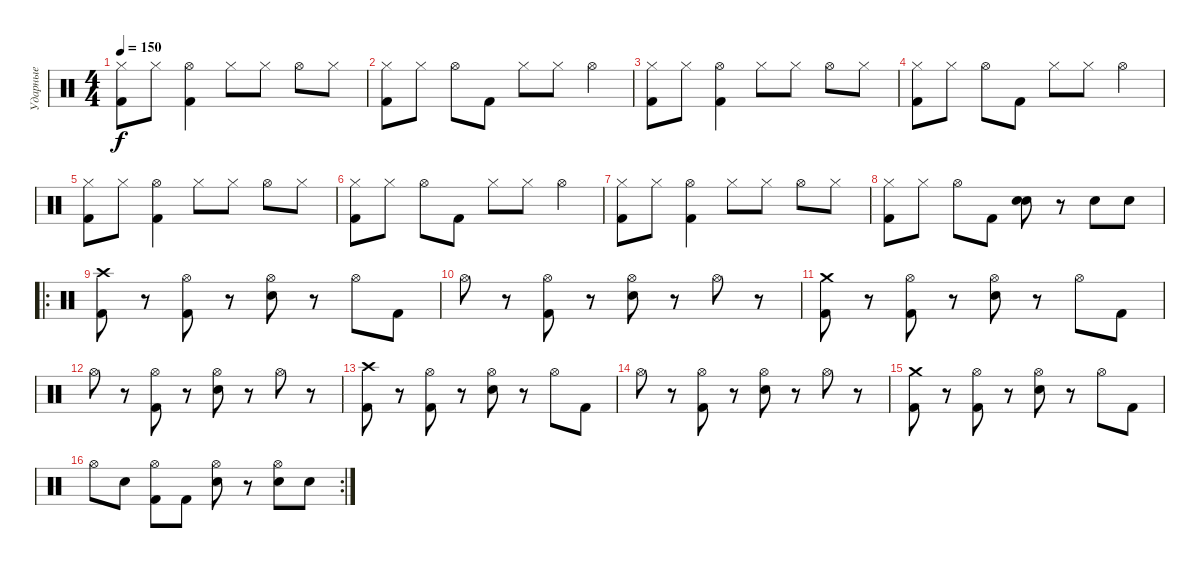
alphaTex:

\track ("Ударные" "Ударные") {instrument percussion}
\staff {score}
\articulation defaults
\ts (4 4)
\tempo 150
\clef neutral
\ks c
("Hi-Hat (closed)" "Kick (hit) 2").8{dy f} "Hi-Hat (closed)".8 ("Hi-Hat (open)" "Kick (hit) 2").4 "Hi-Hat (closed)".8 "Hi-Hat (closed)".8 "Hi-Hat (open)".8 "Hi-Hat (closed)".8 |
("Hi-Hat (closed)" "Kick (hit) 2").8 "Hi-Hat (closed)".8 "Hi-Hat (open)".8 "Kick (hit) 2".8 "Hi-Hat (closed)".8 "Hi-Hat (closed)".8 "Hi-Hat (open)".4 |
("Hi-Hat (closed)" "Kick (hit) 2").8 "Hi-Hat (closed)".8 ("Hi-Hat (open)" "Kick (hit) 2").4 "Hi-Hat (closed)".8 "Hi-Hat (closed)".8 "Hi-Hat (open)".8 "Hi-Hat (closed)".8 |
("Hi-Hat (closed)" "Kick (hit) 2").8 "Hi-Hat (closed)".8 "Hi-Hat (open)".8 "Kick (hit) 2".8 "Hi-Hat (closed)".8 "Hi-Hat (closed)".8 "Hi-Hat (open)".4 |
("Hi-Hat (closed)" "Kick (hit) 2").8 "Hi-Hat (closed)".8 ("Hi-Hat (open)" "Kick (hit) 2").4 "Hi-Hat (closed)".8 "Hi-Hat (closed)".8 "Hi-Hat (open)".8 "Hi-Hat (closed)".8 |
("Hi-Hat (closed)" "Kick (hit) 2").8 "Hi-Hat (closed)".8 "Hi-Hat (open)".8 "Kick (hit) 2".8 "Hi-Hat (closed)".8 "Hi-Hat (closed)".8 "Hi-Hat (open)".4 |
("Hi-Hat (closed)" "Kick (hit) 2").8 "Hi-Hat (closed)".8 ("Hi-Hat (open)" "Kick (hit) 2").4 "Hi-Hat (closed)".8 "Hi-Hat (closed)".8 "Hi-Hat (open)".8 "Hi-Hat (closed)".8 |
("Hi-Hat (closed)" "Kick (hit) 2").8 "Hi-Hat (closed)".8 "Hi-Hat (open)".8 "Kick (hit) 2".8 ("Snare (hit) 2" "Snare (hit) 2").8{bd 480} r.8 "Snare (hit) 2".8 "Snare (hit) 2".8 |
\ro
("Crash high (hit)" "Kick (hit) 2").8 r.8 ("Hi-Hat (open)" "Kick (hit) 2").8 r.8 ("Hi-Hat (open)" "Snare (hit) 2").8 r.8 "Hi-Hat (open)".8 "Kick (hit) 2".8 |
"Hi-Hat (open)".8 r.8 ("Hi-Hat (open)" "Kick (hit) 2").8 r.8 ("Hi-Hat (open)" "Snare (hit) 2").8 r.8 "Hi-Hat (open)".8 r.8 |
("Crash medium (hit)" "Kick (hit) 2").8 r.8 ("Hi-Hat (open)" "Kick (hit) 2").8 r.8 ("Hi-Hat (open)" "Snare (hit) 2").8 r.8 "Hi-Hat (open)".8 "Kick (hit) 2".8 |
"Hi-Hat (open)".8 r.8 ("Hi-Hat (open)" "Kick (hit) 2").8 r.8 ("Hi-Hat (open)" "Snare (hit) 2").8 r.8 "Hi-Hat (open)".8 r.8 |
("Crash high (hit)" "Kick (hit) 2").8 r.8 ("Hi-Hat (open)" "Kick (hit) 2").8 r.8 ("Hi-Hat (open)" "Snare (hit) 2").8 r.8 "Hi-Hat (open)".8 "Kick (hit) 2".8 |
"Hi-Hat (open)".8 r.8 ("Hi-Hat (open)" "Kick (hit) 2").8 r.8 ("Hi-Hat (open)" "Snare (hit) 2").8 r.8 "Hi-Hat (open)".8 r.8 |
("Crash medium (hit)" "Kick (hit) 2").8 r.8 ("Hi-Hat (open)" "Kick (hit) 2").8 r.8 ("Hi-Hat (open)" "Snare (hit) 2").8 r.8 "Hi-Hat (open)".8 "Kick (hit) 2".8 |
\rc 2 "Hi-Hat (open)".8 "Snare (hit) 2".8
("Hi-Hat (open)" "Kick (hit) 2").8 "Kick (hit) 2".8 ("Hi-Hat (open)" "Snare (hit) 2").8 r.8 ("Hi-Hat (open)" "Snare (hit) 2").8 "Snare (hit) 2".8
